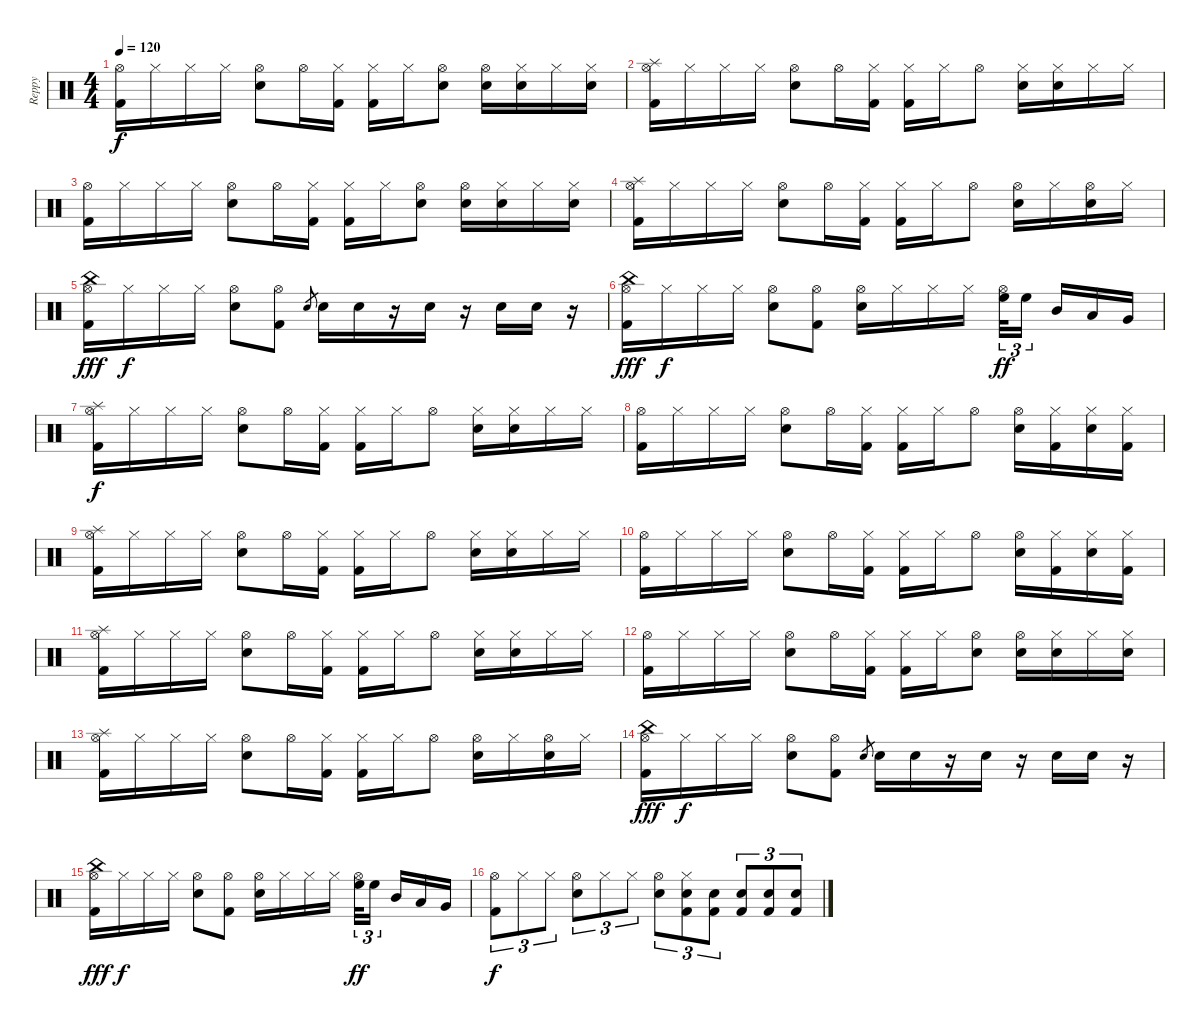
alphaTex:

\track ("Reppy" "Reppy") {instrument percussion}
\staff {score}
\articulation defaults
\ts (4 4)
\tempo 120
\clef neutral
\ks c
("Hi-Hat (open)" "Kick (hit) 2").16{dy f} "Hi-Hat (closed)".16 "Hi-Hat (closed)".16 "Hi-Hat (closed)".16 ("Hi-Hat (open)" "Electric Snare (hit)").8 "Hi-Hat (open)".16 ("Hi-Hat (closed)" "Kick (hit) 2").16 ("Hi-Hat (closed)" "Kick (hit) 2").16 "Hi-Hat (closed)".16 ("Hi-Hat (open)" "Electric Snare (hit)").8 ("Hi-Hat (open)" "Electric Snare (hit)").16 ("Hi-Hat (closed)" "Electric Snare (hit)").16 "Hi-Hat (closed)".16 ("Hi-Hat (closed)" "Electric Snare (hit)").16 |
("Splash (hit)" "Hi-Hat (open)" "Kick (hit) 2").16 "Hi-Hat (closed)".16 "Hi-Hat (closed)".16 "Hi-Hat (closed)".16 ("Hi-Hat (open)" "Electric Snare (hit)").8 "Hi-Hat (open)".16 ("Hi-Hat (closed)" "Kick (hit) 2").16 ("Hi-Hat (closed)" "Kick (hit) 2").16 "Hi-Hat (closed)".16 "Hi-Hat (open)".8 ("Hi-Hat (closed)" "Electric Snare (hit)").16 ("Hi-Hat (closed)" "Electric Snare (hit)").16 "Hi-Hat (closed)".16 "Hi-Hat (closed)".16 |
("Hi-Hat (open)" "Kick (hit) 2").16 "Hi-Hat (closed)".16 "Hi-Hat (closed)".16 "Hi-Hat (closed)".16 ("Hi-Hat (open)" "Electric Snare (hit)").8 "Hi-Hat (open)".16 ("Hi-Hat (closed)" "Kick (hit) 2").16 ("Hi-Hat (closed)" "Kick (hit) 2").16 "Hi-Hat (closed)".16 ("Hi-Hat (open)" "Electric Snare (hit)").8 ("Hi-Hat (open)" "Electric Snare (hit)").16 ("Hi-Hat (closed)" "Electric Snare (hit)").16 "Hi-Hat (closed)".16 ("Hi-Hat (closed)" "Electric Snare (hit)").16 |
("Splash (hit)" "Hi-Hat (open)" "Kick (hit) 2").16 "Hi-Hat (closed)".16 "Hi-Hat (closed)".16 "Hi-Hat (closed)".16 ("Hi-Hat (open)" "Electric Snare (hit)").8 "Hi-Hat (open)".16 ("Hi-Hat (closed)" "Kick (hit) 2").16 ("Hi-Hat (closed)" "Kick (hit) 2").16 "Hi-Hat (closed)".16 "Hi-Hat (open)".8 ("Hi-Hat (open)" "Electric Snare (hit)").16 "Hi-Hat (closed)".16 ("Hi-Hat (open)" "Electric Snare (hit)").16 "Hi-Hat (closed)".16 |
("China (hit)" "Hi-Hat (open)" "Kick (hit) 2").16{dy fff} "Hi-Hat (closed)".16{dy f} "Hi-Hat (closed)".16 "Hi-Hat (closed)".16 ("Hi-Hat (open)" "Electric Snare (hit)").8 ("Hi-Hat (open)" "Kick (hit) 2").8 "Electric Snare (hit)".8{gr} "Electric Snare (hit)".16 "Electric Snare (hit)".16 r.16 "Electric Snare (hit)".16 r.16 "Electric Snare (hit)".16 "Electric Snare (hit)".16 r.16 |
("China (hit)" "Hi-Hat (open)" "Kick (hit) 2").16{dy fff} "Hi-Hat (closed)".16{dy f} "Hi-Hat (closed)".16 "Hi-Hat (closed)".16 ("Hi-Hat (open)" "Electric Snare (hit)").8 ("Hi-Hat (open)" "Kick (hit) 2").8 ("Hi-Hat (open)" "Electric Snare (hit)").16 "Hi-Hat (closed)".16 "Hi-Hat (closed)".16 "Hi-Hat (closed)".16 ("Hi-Hat (open)" "High Floor Tom (hit)").32{tu (3 2) dy ff} "High Floor Tom (hit)".16{tu (3 2)} "Mid Tom (hit)".16 "Low Tom (hit)".16 "Very Low Tom (hit)".16 |
("Splash (hit)" "Hi-Hat (open)" "Kick (hit) 2").16{dy f} "Hi-Hat (closed)".16 "Hi-Hat (closed)".16 "Hi-Hat (closed)".16 ("Hi-Hat (open)" "Electric Snare (hit)").8 "Hi-Hat (open)".16 ("Hi-Hat (closed)" "Kick (hit) 2").16 ("Hi-Hat (closed)" "Kick (hit) 2").16 "Hi-Hat (closed)".16 "Hi-Hat (open)".8 ("Hi-Hat (closed)" "Electric Snare (hit)").16 ("Hi-Hat (closed)" "Electric Snare (hit)").16 "Hi-Hat (closed)".16 "Hi-Hat (closed)".16 |
("Hi-Hat (open)" "Kick (hit) 2").16 "Hi-Hat (closed)".16 "Hi-Hat (closed)".16 "Hi-Hat (closed)".16 ("Hi-Hat (open)" "Electric Snare (hit)").8 "Hi-Hat (open)".16 ("Hi-Hat (closed)" "Kick (hit) 2").16 ("Hi-Hat (closed)" "Kick (hit) 2").16 "Hi-Hat (closed)".16 "Hi-Hat (open)".8 ("Hi-Hat (open)" "Electric Snare (hit)").16 ("Hi-Hat (closed)" "Kick (hit) 2").16 ("Hi-Hat (closed)" "Electric Snare (hit)").16 ("Hi-Hat (closed)" "Kick (hit) 2").16 |
("Splash (hit)" "Hi-Hat (open)" "Kick (hit) 2").16 "Hi-Hat (closed)".16 "Hi-Hat (closed)".16 "Hi-Hat (closed)".16 ("Hi-Hat (open)" "Electric Snare (hit)").8 "Hi-Hat (open)".16 ("Hi-Hat (closed)" "Kick (hit) 2").16 ("Hi-Hat (closed)" "Kick (hit) 2").16 "Hi-Hat (closed)".16 "Hi-Hat (open)".8 ("Hi-Hat (closed)" "Electric Snare (hit)").16 ("Hi-Hat (closed)" "Electric Snare (hit)").16 "Hi-Hat (closed)".16 "Hi-Hat (closed)".16 |
("Hi-Hat (open)" "Kick (hit) 2").16 "Hi-Hat (closed)".16 "Hi-Hat (closed)".16 "Hi-Hat (closed)".16 ("Hi-Hat (open)" "Electric Snare (hit)").8 "Hi-Hat (open)".16 ("Hi-Hat (closed)" "Kick (hit) 2").16 ("Hi-Hat (closed)" "Kick (hit) 2").16 "Hi-Hat (closed)".16 "Hi-Hat (open)".8 ("Hi-Hat (open)" "Electric Snare (hit)").16 ("Hi-Hat (closed)" "Kick (hit) 2").16 ("Hi-Hat (closed)" "Electric Snare (hit)").16 ("Hi-Hat (closed)" "Kick (hit) 2").16 |
("Splash (hit)" "Hi-Hat (open)" "Kick (hit) 2").16 "Hi-Hat (closed)".16 "Hi-Hat (closed)".16 "Hi-Hat (closed)".16 ("Hi-Hat (open)" "Electric Snare (hit)").8 "Hi-Hat (open)".16 ("Hi-Hat (closed)" "Kick (hit) 2").16 ("Hi-Hat (closed)" "Kick (hit) 2").16 "Hi-Hat (closed)".16 "Hi-Hat (open)".8 ("Hi-Hat (closed)" "Electric Snare (hit)").16 ("Hi-Hat (closed)" "Electric Snare (hit)").16 "Hi-Hat (closed)".16 "Hi-Hat (closed)".16 |
("Hi-Hat (open)" "Kick (hit) 2").16 "Hi-Hat (closed)".16 "Hi-Hat (closed)".16 "Hi-Hat (closed)".16 ("Hi-Hat (open)" "Electric Snare (hit)").8 "Hi-Hat (open)".16 ("Hi-Hat (closed)" "Kick (hit) 2").16 ("Hi-Hat (closed)" "Kick (hit) 2").16 "Hi-Hat (closed)".16 ("Hi-Hat (open)" "Electric Snare (hit)").8 ("Hi-Hat (open)" "Electric Snare (hit)").16 ("Hi-Hat (closed)" "Electric Snare (hit)").16 "Hi-Hat (closed)".16 ("Hi-Hat (closed)" "Electric Snare (hit)").16 |
("Splash (hit)" "Hi-Hat (open)" "Kick (hit) 2").16 "Hi-Hat (closed)".16 "Hi-Hat (closed)".16 "Hi-Hat (closed)".16 ("Hi-Hat (open)" "Electric Snare (hit)").8 "Hi-Hat (open)".16 ("Hi-Hat (closed)" "Kick (hit) 2").16 ("Hi-Hat (closed)" "Kick (hit) 2").16 "Hi-Hat (closed)".16 "Hi-Hat (open)".8 ("Hi-Hat (open)" "Electric Snare (hit)").16 "Hi-Hat (closed)".16 ("Hi-Hat (open)" "Electric Snare (hit)").16 "Hi-Hat (closed)".16 |
("China (hit)" "Hi-Hat (open)" "Kick (hit) 2").16{dy fff} "Hi-Hat (closed)".16{dy f} "Hi-Hat (closed)".16 "Hi-Hat (closed)".16 ("Hi-Hat (open)" "Electric Snare (hit)").8 ("Hi-Hat (open)" "Kick (hit) 2").8 "Electric Snare (hit)".8{gr} "Electric Snare (hit)".16 "Electric Snare (hit)".16 r.16 "Electric Snare (hit)".16 r.16 "Electric Snare (hit)".16 "Electric Snare (hit)".16 r.16 |
("China (hit)" "Hi-Hat (open)" "Kick (hit) 2").16{dy fff} "Hi-Hat (closed)".16{dy f} "Hi-Hat (closed)".16 "Hi-Hat (closed)".16 ("Hi-Hat (open)" "Electric Snare (hit)").8 ("Hi-Hat (open)" "Kick (hit) 2").8 ("Hi-Hat (open)" "Electric Snare (hit)").16 "Hi-Hat (closed)".16 "Hi-Hat (closed)".16 "Hi-Hat (closed)".16 ("Hi-Hat (open)" "High Floor Tom (hit)").32{tu (3 2) dy ff} "High Floor Tom (hit)".16{tu (3 2)} "Mid Tom (hit)".16 "Low Tom (hit)".16 "Very Low Tom (hit)".16 |
("Hi-Hat (open)" "Kick (hit) 2").8{tu (3 2) dy f} "Hi-Hat (closed)".8{tu (3 2)} "Hi-Hat (closed)".8{tu (3 2)} ("Hi-Hat (open)" "Electric Snare (hit)").8{tu (3 2)} "Hi-Hat (closed)".8{tu (3 2)} "Hi-Hat (closed)".8{tu (3 2)} ("Hi-Hat (open)" "Electric Snare (hit)").8{tu (3 2)} ("Hi-Hat (closed)" "Electric Snare (hit)" "Kick (hit) 2").8{tu (3 2)} ("Electric Snare (hit)" "Kick (hit) 2").8{tu (3 2)} ("Electric Snare (hit)" "Kick (hit) 2").8{tu (3 2)} ("Electric Snare (hit)" "Kick (hit) 2").8{tu (3 2)} ("Electric Snare (hit)" "Kick (hit) 2").8{tu (3 2)}
